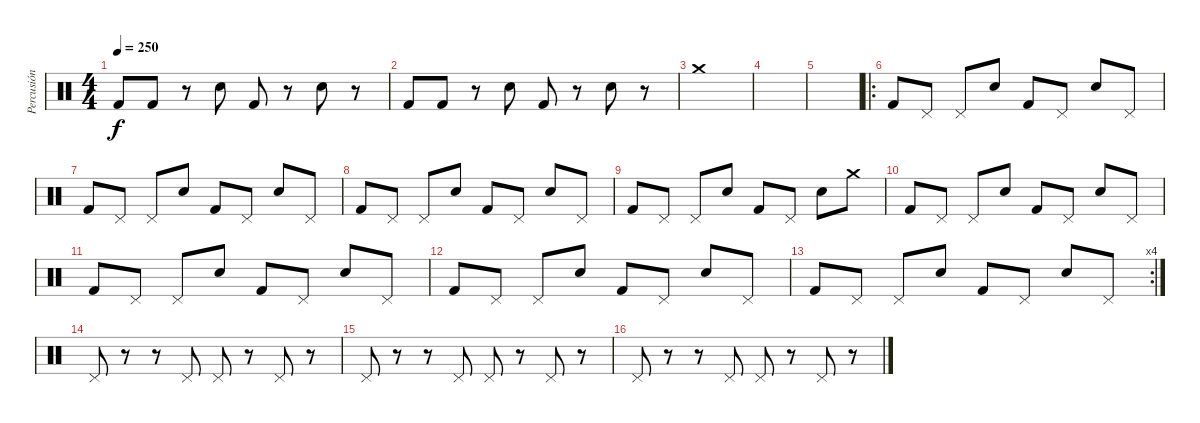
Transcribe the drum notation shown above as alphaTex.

\track ("Percusión" "Percusión") {instrument percussion}
\staff {score}
\articulation defaults
\ts (4 4)
\tempo 250
\clef neutral
\ks c "Kick (hit) 2".8{dy f} "Kick (hit) 2".8
r.8 "Electric Snare (hit)".8 "Kick (hit) 2".8 r.8 "Electric Snare (hit)".8 r.8 |
"Kick (hit) 2".8 "Kick (hit) 2".8 r.8 "Electric Snare (hit)".8 "Kick (hit) 2".8 r.8 "Electric Snare (hit)".8 r.8 |
"Crash medium (hit)".1 |
|
|
\ro "Kick (hit) 2".8 "Pedal Hi-Hat (hit)".8 "Pedal Hi-Hat (hit)".8 "Electric Snare (hit)".8 "Kick (hit) 2".8 "Pedal Hi-Hat (hit)".8 "Electric Snare (hit)".8 "Pedal Hi-Hat (hit)".8
|
"Kick (hit) 2".8 "Pedal Hi-Hat (hit)".8 "Pedal Hi-Hat (hit)".8 "Electric Snare (hit)".8 "Kick (hit) 2".8 "Pedal Hi-Hat (hit)".8 "Electric Snare (hit)".8 "Pedal Hi-Hat (hit)".8 |
"Kick (hit) 2".8 "Pedal Hi-Hat (hit)".8 "Pedal Hi-Hat (hit)".8 "Electric Snare (hit)".8 "Kick (hit) 2".8 "Pedal Hi-Hat (hit)".8 "Electric Snare (hit)".8 "Pedal Hi-Hat (hit)".8 |
"Kick (hit) 2".8 "Pedal Hi-Hat (hit)".8 "Pedal Hi-Hat (hit)".8 "Electric Snare (hit)".8 "Kick (hit) 2".8 "Pedal Hi-Hat (hit)".8 "Electric Snare (hit)".8 "Crash medium (hit)".8 |
"Kick (hit) 2".8 "Pedal Hi-Hat (hit)".8 "Pedal Hi-Hat (hit)".8 "Electric Snare (hit)".8 "Kick (hit) 2".8 "Pedal Hi-Hat (hit)".8 "Electric Snare (hit)".8 "Pedal Hi-Hat (hit)".8 |
"Kick (hit) 2".8 "Pedal Hi-Hat (hit)".8 "Pedal Hi-Hat (hit)".8 "Electric Snare (hit)".8 "Kick (hit) 2".8 "Pedal Hi-Hat (hit)".8 "Electric Snare (hit)".8 "Pedal Hi-Hat (hit)".8 |
"Kick (hit) 2".8 "Pedal Hi-Hat (hit)".8 "Pedal Hi-Hat (hit)".8 "Electric Snare (hit)".8 "Kick (hit) 2".8 "Pedal Hi-Hat (hit)".8 "Electric Snare (hit)".8 "Pedal Hi-Hat (hit)".8 |
\rc 4 "Kick (hit) 2".8 "Pedal Hi-Hat (hit)".8 "Pedal Hi-Hat (hit)".8 "Electric Snare (hit)".8 "Kick (hit) 2".8 "Pedal Hi-Hat (hit)".8 "Electric Snare (hit)".8 "Pedal Hi-Hat (hit)".8
|
"Pedal Hi-Hat (hit)".8 r.8 r.8 "Pedal Hi-Hat (hit)".8 "Pedal Hi-Hat (hit)".8 r.8 "Pedal Hi-Hat (hit)".8 r.8 |
"Pedal Hi-Hat (hit)".8 r.8 r.8 "Pedal Hi-Hat (hit)".8 "Pedal Hi-Hat (hit)".8 r.8 "Pedal Hi-Hat (hit)".8 r.8 |
"Pedal Hi-Hat (hit)".8 r.8 r.8 "Pedal Hi-Hat (hit)".8 "Pedal Hi-Hat (hit)".8 r.8 "Pedal Hi-Hat (hit)".8 r.8
